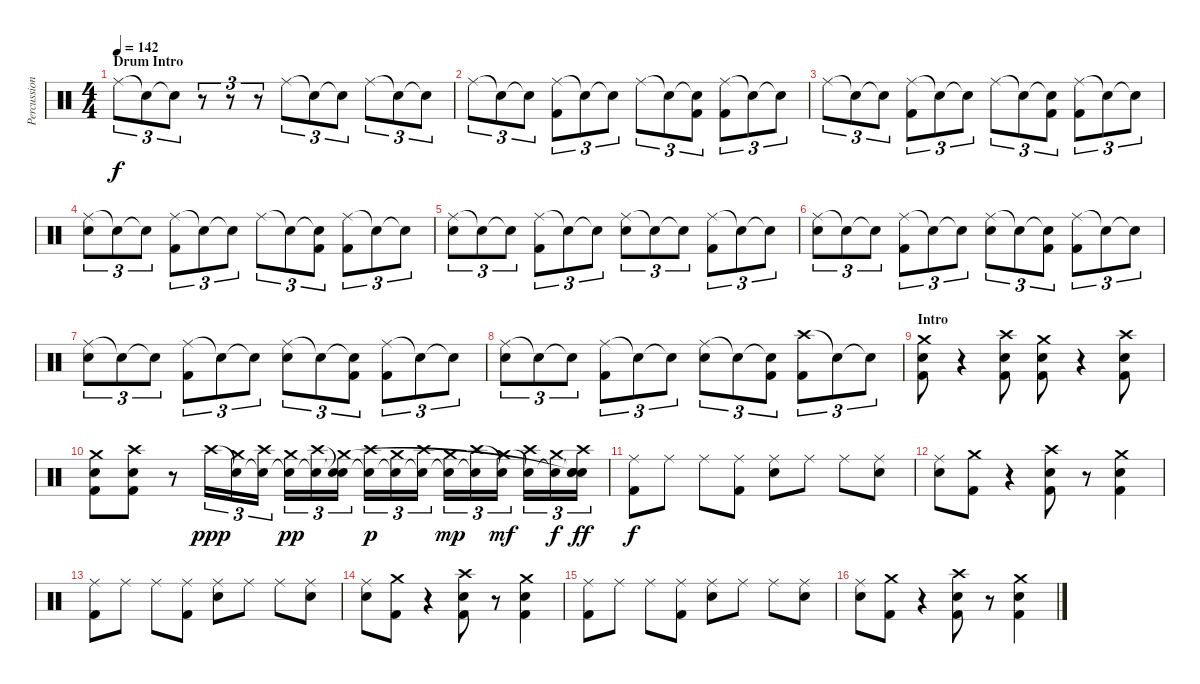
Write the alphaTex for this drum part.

\track ("Percussion" "Percussion") {instrument percussion}
\staff {score}
\articulation defaults
\ts (4 4)
\section ("" "Drum Intro")
\tempo 142
\clef neutral
\ks c "Ride (middle)".8{tu (3 2) dy f} "Snare (hit)"{t}.8{tu (3 2)} "Snare (hit)"{t}.8{tu (3 2)}
r.8{tu (3 2)} r.8{tu (3 2)} r.8{tu (3 2)} "Ride (middle)".8{tu (3 2)} "Snare (hit)"{t}.8{tu (3 2)} "Snare (hit)"{t}.8{tu (3 2)} "Ride (middle)".8{tu (3 2)} "Snare (hit)"{t}.8{tu (3 2)} "Snare (hit)"{t}.8{tu (3 2)} |
"Ride (middle)".8{tu (3 2)} "Snare (hit)"{t}.8{tu (3 2)} "Snare (hit)"{t}.8{tu (3 2)} ("Ride (middle)" "Kick (hit) 2").8{tu (3 2)} "Snare (hit)"{t}.8{tu (3 2)} "Snare (hit)"{t}.8{tu (3 2)} "Ride (middle)".8{tu (3 2)} "Snare (hit)"{t}.8{tu (3 2)} ("Snare (hit)"{t} "Kick (hit) 2").8{tu (3 2)} ("Ride (middle)" "Kick (hit) 2").8{tu (3 2)} "Snare (hit)"{t}.8{tu (3 2)} "Snare (hit)"{t}.8{tu (3 2)} |
"Ride (middle)".8{tu (3 2)} "Snare (hit)"{t}.8{tu (3 2)} "Snare (hit)"{t}.8{tu (3 2)} ("Ride (middle)" "Kick (hit) 2").8{tu (3 2)} "Snare (hit)"{t}.8{tu (3 2)} "Snare (hit)"{t}.8{tu (3 2)} "Ride (middle)".8{tu (3 2)} "Snare (hit)"{t}.8{tu (3 2)} ("Snare (hit)"{t} "Kick (hit) 2").8{tu (3 2)} ("Ride (middle)" "Kick (hit) 2").8{tu (3 2)} "Snare (hit)"{t}.8{tu (3 2)} "Snare (hit)"{t}.8{tu (3 2)} |
("Ride (middle)" "Snare (hit) 2").8{tu (3 2)} "Snare (hit)"{t}.8{tu (3 2)} "Snare (hit)"{t}.8{tu (3 2)} ("Ride (middle)" "Kick (hit) 2").8{tu (3 2)} "Snare (hit)"{t}.8{tu (3 2)} "Snare (hit)"{t}.8{tu (3 2)} "Ride (middle)".8{tu (3 2)} "Snare (hit)"{t}.8{tu (3 2)} ("Snare (hit)"{t} "Kick (hit) 2").8{tu (3 2)} ("Ride (middle)" "Kick (hit) 2").8{tu (3 2)} "Snare (hit)"{t}.8{tu (3 2)} "Snare (hit)"{t}.8{tu (3 2)} |
("Ride (middle)" "Snare (hit) 2").8{tu (3 2)} "Snare (hit)"{t}.8{tu (3 2)} "Snare (hit)"{t}.8{tu (3 2)} ("Ride (middle)" "Kick (hit) 2").8{tu (3 2)} "Snare (hit)"{t}.8{tu (3 2)} "Snare (hit)"{t}.8{tu (3 2)} ("Ride (middle)" "Snare (hit) 2").8{tu (3 2)} "Snare (hit)"{t}.8{tu (3 2)} "Snare (hit)"{t}.8{tu (3 2)} ("Ride (middle)" "Kick (hit) 2").8{tu (3 2)} "Snare (hit)"{t}.8{tu (3 2)} "Snare (hit)"{t}.8{tu (3 2)} |
("Ride (middle)" "Snare (hit) 2").8{tu (3 2)} "Snare (hit)"{t}.8{tu (3 2)} "Snare (hit)"{t}.8{tu (3 2)} ("Ride (middle)" "Kick (hit) 2").8{tu (3 2)} "Snare (hit)"{t}.8{tu (3 2)} "Snare (hit)"{t}.8{tu (3 2)} ("Ride (middle)" "Snare (hit) 2").8{tu (3 2)} "Snare (hit)"{t}.8{tu (3 2)} ("Snare (hit)"{t} "Kick (hit) 2").8{tu (3 2)} ("Ride (middle)" "Kick (hit) 2").8{tu (3 2)} "Snare (hit)"{t}.8{tu (3 2)} "Snare (hit)"{t}.8{tu (3 2)} |
("Ride (middle)" "Snare (hit) 2").8{tu (3 2)} "Snare (hit)"{t}.8{tu (3 2)} "Snare (hit)"{t}.8{tu (3 2)} ("Ride (middle)" "Kick (hit) 2").8{tu (3 2)} "Snare (hit)"{t}.8{tu (3 2)} "Snare (hit)"{t}.8{tu (3 2)} ("Ride (middle)" "Snare (hit) 2").8{tu (3 2)} "Snare (hit)"{t}.8{tu (3 2)} ("Snare (hit)"{t} "Kick (hit) 2").8{tu (3 2)} ("Ride (middle)" "Kick (hit) 2").8{tu (3 2)} "Snare (hit)"{t}.8{tu (3 2)} "Snare (hit)"{t}.8{tu (3 2)} |
("Ride (middle)" "Snare (hit) 2").8{tu (3 2)} "Snare (hit)"{t}.8{tu (3 2)} "Snare (hit)"{t}.8{tu (3 2)} ("Ride (middle)" "Kick (hit) 2").8{tu (3 2)} "Snare (hit)"{t}.8{tu (3 2)} "Snare (hit)"{t}.8{tu (3 2)} ("Ride (middle)" "Snare (hit) 2").8{tu (3 2)} "Snare (hit)"{t}.8{tu (3 2)} ("Snare (hit)"{t} "Kick (hit) 2").8{tu (3 2)} ("Crash high (hit)" "Kick (hit) 2").8{tu (3 2)} "Snare (hit)"{t}.8{tu (3 2)} "Snare (hit)"{t}.8{tu (3 2)} |
\section ("" "Intro")
("Crash medium (hit)" "Snare (hit) 2" "Kick (hit) 2").8 r.4 ("Crash high (hit)" "Snare (hit) 2" "Kick (hit) 2").8 ("Crash medium (hit)" "Snare (hit) 2" "Kick (hit) 2").8 r.4 ("Crash high (hit)" "Snare (hit) 2" "Kick (hit) 2").8 |
("Crash medium (hit)" "Snare (hit) 2" "Kick (hit) 2").8 ("Crash high (hit)" "Snare (hit) 2" "Kick (hit) 2").8 r.8 "Crash high (hit)".16{tu (3 2) dy ppp} ("Snare (hit)"{t} "Crash medium (hit)").16{tu (3 2)} ("Snare (hit)"{t} "Crash high (hit)").16{tu (3 2)} ("Snare (hit)"{t} "Crash medium (hit)").16{tu (3 2) dy pp} ("Snare (hit)"{t} "Crash high (hit)").16{tu (3 2)} ("Snare (hit)"{t} "Snare (hit)"{t} "Crash medium (hit)").16{tu (3 2)} ("Crash high (hit)" "Snare (hit)"{t}).16{tu (3 2) dy p} ("Crash medium (hit)" "Snare (hit)"{t}).16{tu (3 2)} ("Crash high (hit)" "Snare (hit)"{t}).16{tu (3 2)} ("Crash medium (hit)" "Snare (hit)"{t}).16{tu (3 2) dy mp} ("Crash high (hit)" "Snare (hit)"{t}).16{tu (3 2)} ("Snare (hit)"{t} "Crash medium (hit)").16{tu (3 2) dy mf} ("Crash high (hit)" "Snare (hit)"{t}).16{tu (3 2)} ("Crash medium (hit)" "Snare (hit)"{t}).16{tu (3 2) dy f} ("Crash high (hit)" "Snare (hit)"{t} "Snare (hit)"{t} "Snare (hit)").16{tu (3 2) dy ff} |
("Ride (middle)" "Kick (hit) 2").8{dy f} "Ride (middle)".8 "Ride (middle)".8 ("Ride (middle)" "Kick (hit) 2").8 ("Ride (middle)" "Snare (hit) 2").8 "Ride (middle)".8 "Ride (middle)".8 ("Ride (middle)" "Snare (hit) 2").8 |
("Ride (middle)" "Snare (hit) 2").8 ("Crash medium (hit)" "Kick (hit) 2").8 r.4 ("Crash high (hit)" "Snare (hit) 2" "Kick (hit) 2").8 r.8 ("Crash medium (hit)" "Snare (hit) 2" "Kick (hit) 2").4 |
("Ride (middle)" "Kick (hit) 2").8 "Ride (middle)".8 "Ride (middle)".8 ("Ride (middle)" "Kick (hit) 2").8 ("Ride (middle)" "Snare (hit) 2").8 "Ride (middle)".8 "Ride (middle)".8 ("Ride (middle)" "Snare (hit) 2").8 |
("Ride (middle)" "Snare (hit) 2").8 ("Crash medium (hit)" "Kick (hit) 2").8 r.4 ("Crash high (hit)" "Snare (hit) 2" "Kick (hit) 2").8 r.8 ("Crash medium (hit)" "Snare (hit) 2" "Kick (hit) 2").4 |
("Ride (middle)" "Kick (hit) 2").8 "Ride (middle)".8 "Ride (middle)".8 ("Ride (middle)" "Kick (hit) 2").8 ("Ride (middle)" "Snare (hit) 2").8 "Ride (middle)".8 "Ride (middle)".8 ("Ride (middle)" "Snare (hit) 2").8 |
("Ride (middle)" "Snare (hit) 2").8 ("Crash medium (hit)" "Kick (hit) 2").8 r.4 ("Crash high (hit)" "Snare (hit) 2" "Kick (hit) 2").8 r.8 ("Crash medium (hit)" "Snare (hit) 2" "Kick (hit) 2").4
